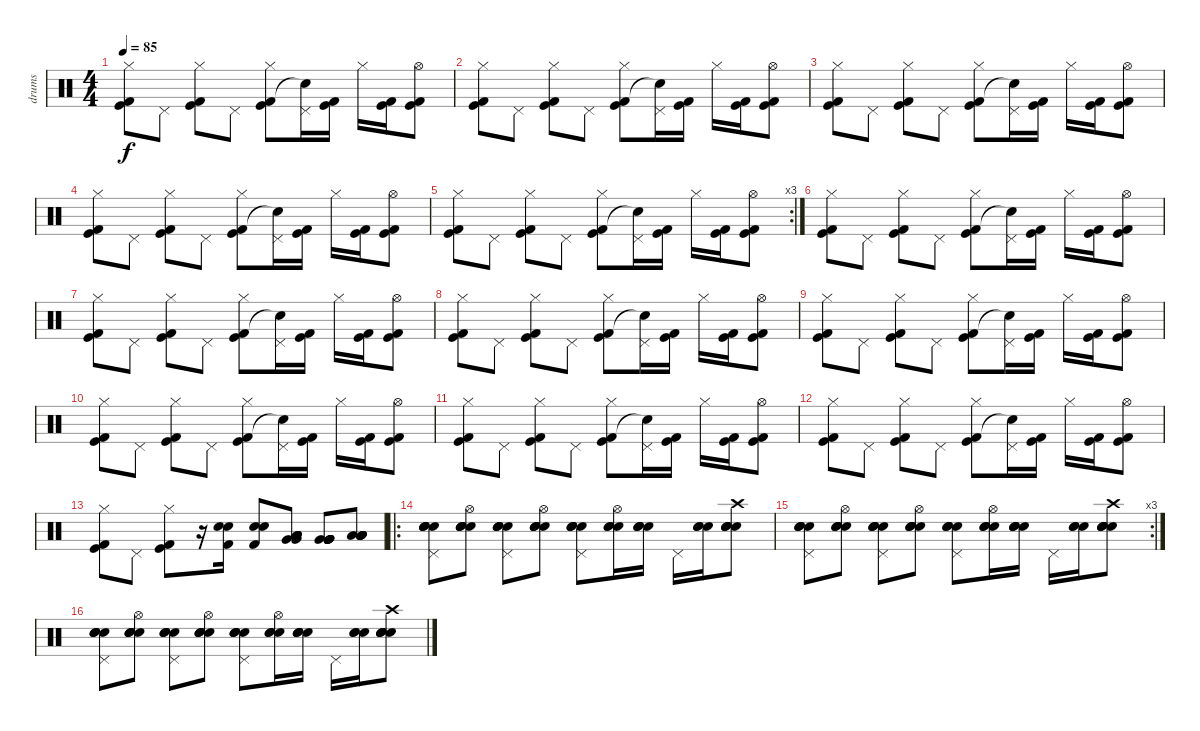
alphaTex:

\track ("drums" "drums") {instrument percussion}
\staff {score}
\articulation defaults
\ts (4 4)
\tempo 85
\clef neutral
\ks c
("Hi-Hat (closed)" "Kick (hit) 2" "Kick (hit)").8{dy f} "Pedal Hi-Hat (hit)".8 ("Hi-Hat (closed)" "Kick (hit) 2" "Kick (hit)").8 "Pedal Hi-Hat (hit)".8 ("Hi-Hat (closed)" "Kick (hit) 2" "Kick (hit)").8 ("Pedal Hi-Hat (hit)" "Snare (hit)"{t}).16 ("Kick (hit) 2" "Kick (hit)").16 "Hi-Hat (closed)".16 ("Kick (hit) 2" "Kick (hit)").16 ("Hi-Hat (open)" "Kick (hit) 2" "Kick (hit)").8 |
("Hi-Hat (closed)" "Kick (hit) 2" "Kick (hit)").8 "Pedal Hi-Hat (hit)".8 ("Hi-Hat (closed)" "Kick (hit) 2" "Kick (hit)").8 "Pedal Hi-Hat (hit)".8 ("Hi-Hat (closed)" "Kick (hit) 2" "Kick (hit)").8 ("Pedal Hi-Hat (hit)" "Snare (hit)"{t}).16 ("Kick (hit) 2" "Kick (hit)").16 "Hi-Hat (closed)".16 ("Kick (hit) 2" "Kick (hit)").16 ("Hi-Hat (open)" "Kick (hit) 2" "Kick (hit)").8 |
("Hi-Hat (closed)" "Kick (hit) 2" "Kick (hit)").8 "Pedal Hi-Hat (hit)".8 ("Hi-Hat (closed)" "Kick (hit) 2" "Kick (hit)").8 "Pedal Hi-Hat (hit)".8 ("Hi-Hat (closed)" "Kick (hit) 2" "Kick (hit)").8 ("Pedal Hi-Hat (hit)" "Snare (hit)"{t}).16 ("Kick (hit) 2" "Kick (hit)").16 "Hi-Hat (closed)".16 ("Kick (hit) 2" "Kick (hit)").16 ("Hi-Hat (open)" "Kick (hit) 2" "Kick (hit)").8 |
("Hi-Hat (closed)" "Kick (hit) 2" "Kick (hit)").8 "Pedal Hi-Hat (hit)".8 ("Hi-Hat (closed)" "Kick (hit) 2" "Kick (hit)").8 "Pedal Hi-Hat (hit)".8 ("Hi-Hat (closed)" "Kick (hit) 2" "Kick (hit)").8 ("Pedal Hi-Hat (hit)" "Snare (hit)"{t}).16 ("Kick (hit) 2" "Kick (hit)").16 "Hi-Hat (closed)".16 ("Kick (hit) 2" "Kick (hit)").16 ("Hi-Hat (open)" "Kick (hit) 2" "Kick (hit)").8 |
\rc 3
("Hi-Hat (closed)" "Kick (hit) 2" "Kick (hit)").8 "Pedal Hi-Hat (hit)".8 ("Hi-Hat (closed)" "Kick (hit) 2" "Kick (hit)").8 "Pedal Hi-Hat (hit)".8 ("Hi-Hat (closed)" "Kick (hit) 2" "Kick (hit)").8 ("Pedal Hi-Hat (hit)" "Snare (hit)"{t}).16 ("Kick (hit) 2" "Kick (hit)").16 "Hi-Hat (closed)".16 ("Kick (hit) 2" "Kick (hit)").16 ("Hi-Hat (open)" "Kick (hit) 2" "Kick (hit)").8 |
("Hi-Hat (closed)" "Kick (hit) 2" "Kick (hit)").8 "Pedal Hi-Hat (hit)".8 ("Hi-Hat (closed)" "Kick (hit) 2" "Kick (hit)").8 "Pedal Hi-Hat (hit)".8 ("Hi-Hat (closed)" "Kick (hit) 2" "Kick (hit)").8 ("Pedal Hi-Hat (hit)" "Snare (hit)"{t}).16 ("Kick (hit) 2" "Kick (hit)").16 "Hi-Hat (closed)".16 ("Kick (hit) 2" "Kick (hit)").16 ("Hi-Hat (open)" "Kick (hit) 2" "Kick (hit)").8 |
("Hi-Hat (closed)" "Kick (hit) 2" "Kick (hit)").8 "Pedal Hi-Hat (hit)".8 ("Hi-Hat (closed)" "Kick (hit) 2" "Kick (hit)").8 "Pedal Hi-Hat (hit)".8 ("Hi-Hat (closed)" "Kick (hit) 2" "Kick (hit)").8 ("Pedal Hi-Hat (hit)" "Snare (hit)"{t}).16 ("Kick (hit) 2" "Kick (hit)").16 "Hi-Hat (closed)".16 ("Kick (hit) 2" "Kick (hit)").16 ("Hi-Hat (open)" "Kick (hit) 2" "Kick (hit)").8 |
("Hi-Hat (closed)" "Kick (hit) 2" "Kick (hit)").8 "Pedal Hi-Hat (hit)".8 ("Hi-Hat (closed)" "Kick (hit) 2" "Kick (hit)").8 "Pedal Hi-Hat (hit)".8 ("Hi-Hat (closed)" "Kick (hit) 2" "Kick (hit)").8 ("Pedal Hi-Hat (hit)" "Snare (hit)"{t}).16 ("Kick (hit) 2" "Kick (hit)").16 "Hi-Hat (closed)".16 ("Kick (hit) 2" "Kick (hit)").16 ("Hi-Hat (open)" "Kick (hit) 2" "Kick (hit)").8 |
("Hi-Hat (closed)" "Kick (hit) 2" "Kick (hit)").8 "Pedal Hi-Hat (hit)".8 ("Hi-Hat (closed)" "Kick (hit) 2" "Kick (hit)").8 "Pedal Hi-Hat (hit)".8 ("Hi-Hat (closed)" "Kick (hit) 2" "Kick (hit)").8 ("Pedal Hi-Hat (hit)" "Snare (hit)"{t}).16 ("Kick (hit) 2" "Kick (hit)").16 "Hi-Hat (closed)".16 ("Kick (hit) 2" "Kick (hit)").16 ("Hi-Hat (open)" "Kick (hit) 2" "Kick (hit)").8 |
("Hi-Hat (closed)" "Kick (hit) 2" "Kick (hit)").8 "Pedal Hi-Hat (hit)".8 ("Hi-Hat (closed)" "Kick (hit) 2" "Kick (hit)").8 "Pedal Hi-Hat (hit)".8 ("Hi-Hat (closed)" "Kick (hit) 2" "Kick (hit)").8 ("Pedal Hi-Hat (hit)" "Snare (hit)"{t}).16 ("Kick (hit) 2" "Kick (hit)").16 "Hi-Hat (closed)".16 ("Kick (hit) 2" "Kick (hit)").16 ("Hi-Hat (open)" "Kick (hit) 2" "Kick (hit)").8 |
("Hi-Hat (closed)" "Kick (hit) 2" "Kick (hit)").8 "Pedal Hi-Hat (hit)".8 ("Hi-Hat (closed)" "Kick (hit) 2" "Kick (hit)").8 "Pedal Hi-Hat (hit)".8 ("Hi-Hat (closed)" "Kick (hit) 2" "Kick (hit)").8 ("Pedal Hi-Hat (hit)" "Snare (hit)"{t}).16 ("Kick (hit) 2" "Kick (hit)").16 "Hi-Hat (closed)".16 ("Kick (hit) 2" "Kick (hit)").16 ("Hi-Hat (open)" "Kick (hit) 2" "Kick (hit)").8 |
("Hi-Hat (closed)" "Kick (hit) 2" "Kick (hit)").8 "Pedal Hi-Hat (hit)".8 ("Hi-Hat (closed)" "Kick (hit) 2" "Kick (hit)").8 "Pedal Hi-Hat (hit)".8 ("Hi-Hat (closed)" "Kick (hit) 2" "Kick (hit)").8 ("Pedal Hi-Hat (hit)" "Snare (hit)"{t}).16 ("Kick (hit) 2" "Kick (hit)").16 "Hi-Hat (closed)".16 ("Kick (hit) 2" "Kick (hit)").16 ("Hi-Hat (open)" "Kick (hit) 2" "Kick (hit)").8 |
("Hi-Hat (closed)" "Kick (hit) 2" "Kick (hit)").8 "Pedal Hi-Hat (hit)".8 ("Hi-Hat (closed)" "Kick (hit) 2" "Kick (hit)").8 r.16 ("Kick (hit) 2" "Electric Snare (hit)" "Snare (hit) 2").16 ("Kick (hit) 2" "Electric Snare (hit)" "Snare (hit) 2").8 ("Low Floor Tom (hit)" "Very Low Tom (hit)" "Low Floor Tom (hit)" "Low Floor Tom (hit)" "Low Floor Tom (hit)" "Very Low Tom (hit)").8 ("Very Low Tom (hit)" "Very Low Tom (hit)" "Very Low Tom (hit)" "Very Low Tom (hit)" "Very Low Tom (hit)" "Very Low Tom (hit)").8 ("Low Tom (hit)" "Low Tom (hit)" "Low Tom (hit)" "Low Tom (hit)" "Low Tom (hit)" "Low Tom (hit)").8 |
\ro
("Pedal Hi-Hat (hit)" "Snare (hit) 2" "Snare (hit) 2" "Snare (hit) 2" "Snare (hit) 2").8 ("Hi-Hat (open)" "Electric Snare (hit)" "Electric Snare (hit)" "Electric Snare (hit)" "Electric Snare (hit)").8 ("Pedal Hi-Hat (hit)" "Snare (hit) 2" "Snare (hit) 2" "Snare (hit) 2" "Snare (hit) 2").8 ("Hi-Hat (open)" "Electric Snare (hit)" "Electric Snare (hit)" "Electric Snare (hit)" "Electric Snare (hit)").8 ("Pedal Hi-Hat (hit)" "Snare (hit) 2" "Snare (hit) 2" "Snare (hit) 2" "Snare (hit) 2").8 ("Hi-Hat (open)" "Electric Snare (hit)" "Electric Snare (hit)" "Electric Snare (hit)").16 ("Electric Snare (hit)" "Electric Snare (hit)" "Electric Snare (hit)" "Electric Snare (hit)").16 "Pedal Hi-Hat (hit)".16 ("Snare (hit) 2" "Snare (hit) 2" "Snare (hit) 2").16 ("Crash high (hit)" "Snare (hit) 2" "Snare (hit) 2" "Snare (hit) 2" "Snare (hit) 2").8 |
\rc 3
("Pedal Hi-Hat (hit)" "Snare (hit) 2" "Snare (hit) 2" "Snare (hit) 2" "Snare (hit) 2").8 ("Hi-Hat (open)" "Electric Snare (hit)" "Electric Snare (hit)" "Electric Snare (hit)" "Electric Snare (hit)").8 ("Pedal Hi-Hat (hit)" "Snare (hit) 2" "Snare (hit) 2" "Snare (hit) 2" "Snare (hit) 2").8 ("Hi-Hat (open)" "Electric Snare (hit)" "Electric Snare (hit)" "Electric Snare (hit)" "Electric Snare (hit)").8 ("Pedal Hi-Hat (hit)" "Snare (hit) 2" "Snare (hit) 2" "Snare (hit) 2" "Snare (hit) 2").8 ("Hi-Hat (open)" "Electric Snare (hit)" "Electric Snare (hit)" "Electric Snare (hit)").16 ("Electric Snare (hit)" "Electric Snare (hit)" "Electric Snare (hit)" "Electric Snare (hit)").16 "Pedal Hi-Hat (hit)".16 ("Snare (hit) 2" "Snare (hit) 2" "Snare (hit) 2").16 ("Crash high (hit)" "Snare (hit) 2" "Snare (hit) 2" "Snare (hit) 2" "Snare (hit) 2").8 |
("Pedal Hi-Hat (hit)" "Snare (hit) 2" "Snare (hit) 2" "Snare (hit) 2" "Snare (hit) 2").8 ("Hi-Hat (open)" "Electric Snare (hit)" "Electric Snare (hit)" "Electric Snare (hit)" "Electric Snare (hit)").8 ("Pedal Hi-Hat (hit)" "Snare (hit) 2" "Snare (hit) 2" "Snare (hit) 2" "Snare (hit) 2").8 ("Hi-Hat (open)" "Electric Snare (hit)" "Electric Snare (hit)" "Electric Snare (hit)" "Electric Snare (hit)").8 ("Pedal Hi-Hat (hit)" "Snare (hit) 2" "Snare (hit) 2" "Snare (hit) 2" "Snare (hit) 2").8 ("Hi-Hat (open)" "Electric Snare (hit)" "Electric Snare (hit)" "Electric Snare (hit)").16 ("Electric Snare (hit)" "Electric Snare (hit)" "Electric Snare (hit)" "Electric Snare (hit)").16 "Pedal Hi-Hat (hit)".16 ("Snare (hit) 2" "Snare (hit) 2" "Snare (hit) 2").16 ("Crash high (hit)" "Snare (hit) 2" "Snare (hit) 2" "Snare (hit) 2" "Snare (hit) 2").8
